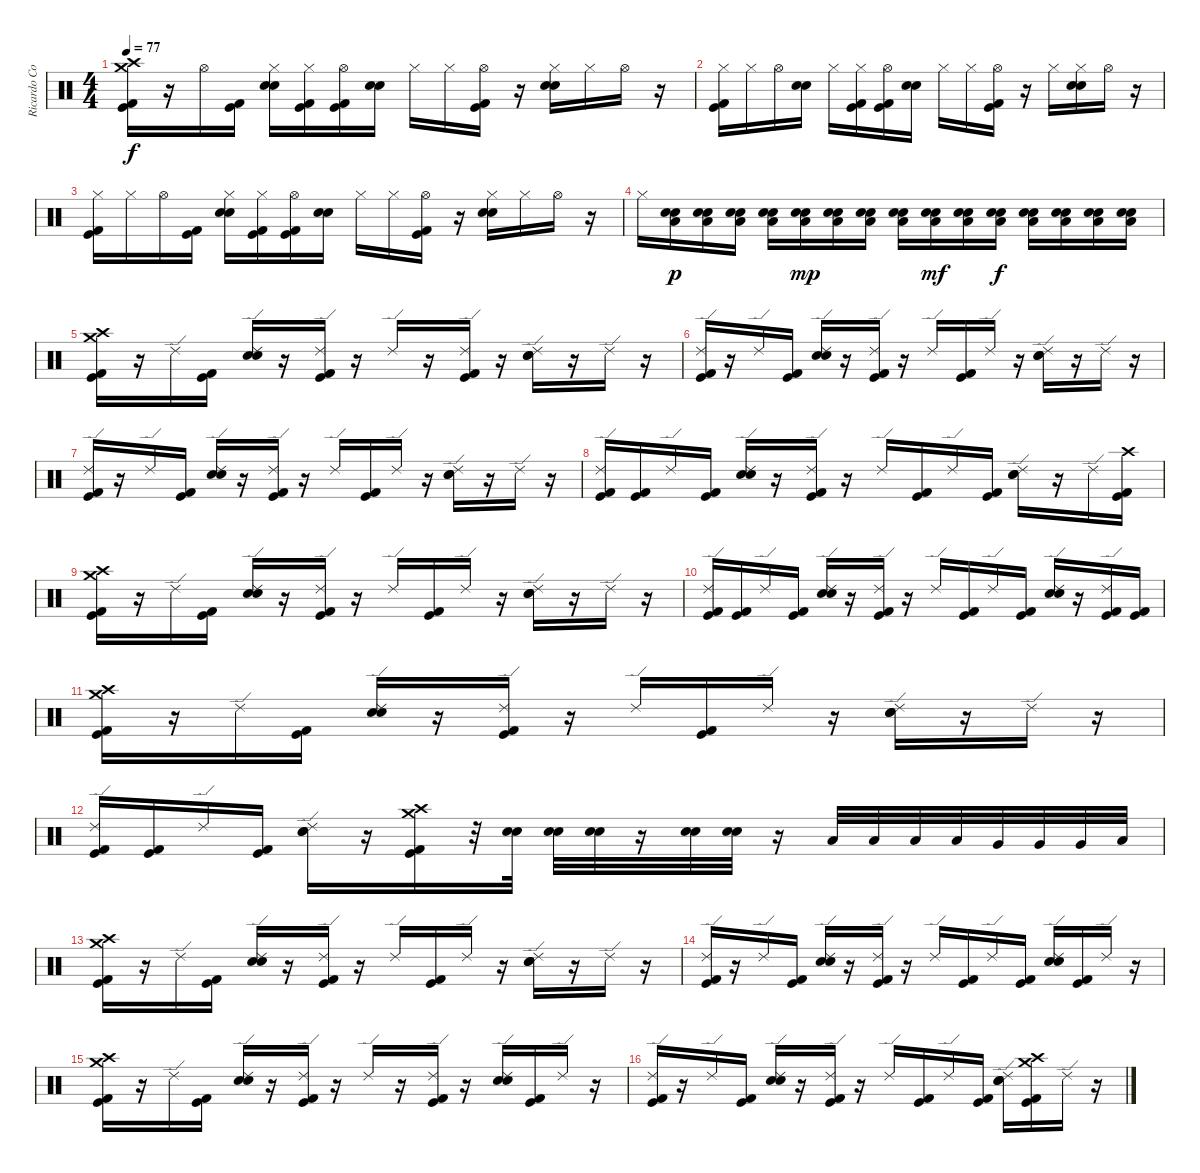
\track ("Ricardo Confessori" "Ricardo Co") {instrument percussion}
\staff {score}
\articulation defaults
\ts (4 4)
\tempo 77
\clef neutral
\ks c
("Kick (hit) 2" "Kick (hit)" "Crash high (hit)" "Crash medium (hit)").16{dy f} r.16 "Hi-Hat (open)".16 ("Kick (hit) 2" "Kick (hit)").16 ("Electric Snare (hit)" "Snare (hit) 2" "Hi-Hat (closed)").16 ("Kick (hit) 2" "Kick (hit)" "Hi-Hat (closed)").16 ("Kick (hit) 2" "Kick (hit)" "Hi-Hat (open)").16 ("Snare (hit) 2" "Electric Snare (hit)").16 "Hi-Hat (closed)".16 "Hi-Hat (closed)".16 ("Kick (hit) 2" "Kick (hit)" "Hi-Hat (open)").16 r.16 ("Snare (hit) 2" "Electric Snare (hit)" "Hi-Hat (closed)").16 "Hi-Hat (closed)".16 "Hi-Hat (open)".16 r.16 |
("Kick (hit) 2" "Kick (hit)" "Hi-Hat (closed)").16 "Hi-Hat (closed)".16 "Hi-Hat (open)".16 ("Electric Snare (hit)" "Snare (hit) 2").16 "Hi-Hat (closed)".16 ("Kick (hit) 2" "Kick (hit)" "Hi-Hat (closed)").16 ("Kick (hit) 2" "Kick (hit)" "Hi-Hat (open)").16 ("Electric Snare (hit)" "Snare (hit) 2").16 "Hi-Hat (closed)".16 "Hi-Hat (closed)".16 ("Kick (hit) 2" "Kick (hit)" "Hi-Hat (open)").16 r.16 "Hi-Hat (closed)".16 ("Snare (hit) 2" "Electric Snare (hit)" "Hi-Hat (closed)").16 "Hi-Hat (open)".16 r.16 |
("Kick (hit) 2" "Kick (hit)" "Hi-Hat (closed)").16 "Hi-Hat (closed)".16 "Hi-Hat (open)".16 ("Kick (hit) 2" "Kick (hit)").16 ("Electric Snare (hit)" "Snare (hit) 2" "Hi-Hat (closed)").16 ("Kick (hit) 2" "Kick (hit)" "Hi-Hat (closed)").16 ("Kick (hit) 2" "Kick (hit)" "Hi-Hat (open)").16 ("Electric Snare (hit)" "Snare (hit) 2").16 "Hi-Hat (closed)".16 "Hi-Hat (closed)".16 ("Kick (hit) 2" "Kick (hit)" "Hi-Hat (open)").16 r.16 ("Snare (hit) 2" "Electric Snare (hit)" "Hi-Hat (closed)").16 "Hi-Hat (closed)".16 "Hi-Hat (open)".16 r.16 |
"Hi-Hat (closed)".16 ("Low Floor Tom (hit)" "Snare (hit) 2" "Electric Snare (hit)").16{dy p} ("Low Floor Tom (hit)" "Snare (hit) 2" "Electric Snare (hit)").16 ("Electric Snare (hit)" "Snare (hit) 2" "Low Floor Tom (hit)").16 ("Low Floor Tom (hit)" "Electric Snare (hit)" "Snare (hit) 2").16 ("Low Floor Tom (hit)" "Electric Snare (hit)" "Snare (hit) 2").16{dy mp} ("Low Floor Tom (hit)" "Electric Snare (hit)" "Snare (hit) 2").16 ("Low Floor Tom (hit)" "Electric Snare (hit)" "Snare (hit) 2").16 ("Low Floor Tom (hit)" "Electric Snare (hit)" "Snare (hit) 2").16 ("Low Floor Tom (hit)" "Electric Snare (hit)" "Snare (hit) 2").16{dy mf} ("Low Floor Tom (hit)" "Electric Snare (hit)" "Snare (hit) 2").16 ("Low Floor Tom (hit)" "Electric Snare (hit)" "Snare (hit) 2").16{dy f} ("Low Floor Tom (hit)" "Electric Snare (hit)" "Snare (hit) 2").16 ("Low Floor Tom (hit)" "Electric Snare (hit)" "Snare (hit) 2").16 ("Low Floor Tom (hit)" "Electric Snare (hit)" "Snare (hit) 2").16 ("Snare (hit) 2" "Low Floor Tom (hit)" "Electric Snare (hit)").16 |
("Kick (hit) 2" "Kick (hit)" "Crash high (hit)" "Crash medium (hit)").16 r.16 "Ride (edge) 2".16 ("Kick (hit) 2" "Kick (hit)").16 ("Electric Snare (hit)" "Snare (hit) 2" "Ride (edge) 2").16 r.16 ("Kick (hit) 2" "Kick (hit)" "Ride (edge) 2").16 r.16 "Ride (edge) 2".16 r.16 ("Kick (hit) 2" "Kick (hit)" "Ride (edge) 2").16 r.16 ("Electric Snare (hit)" "Snare (hit) 2" "Ride (edge) 2").16 r.16 "Ride (edge) 2".16 r.16 |
("Kick (hit) 2" "Kick (hit)" "Ride (edge) 2").16 r.16 "Ride (edge) 2".16 ("Kick (hit) 2" "Kick (hit)").16 ("Electric Snare (hit)" "Snare (hit) 2" "Ride (edge) 2").16 r.16 ("Kick (hit) 2" "Kick (hit)" "Ride (edge) 2").16 r.16 "Ride (edge) 2".16 ("Kick (hit) 2" "Kick (hit)").16 "Ride (edge) 2".16 r.16 ("Electric Snare (hit)" "Snare (hit) 2" "Ride (edge) 2").16 r.16 "Ride (edge) 2".16 r.16 |
("Kick (hit) 2" "Kick (hit)" "Ride (edge) 2").16 r.16 "Ride (edge) 2".16 ("Kick (hit) 2" "Kick (hit)").16 ("Electric Snare (hit)" "Snare (hit) 2" "Ride (edge) 2").16 r.16 ("Kick (hit) 2" "Kick (hit)" "Ride (edge) 2").16 r.16 "Ride (edge) 2".16 ("Kick (hit) 2" "Kick (hit)").16 "Ride (edge) 2".16 r.16 ("Electric Snare (hit)" "Snare (hit) 2" "Ride (edge) 2").16 r.16 "Ride (edge) 2".16 r.16 |
("Kick (hit) 2" "Kick (hit)" "Ride (edge) 2").16 ("Kick (hit) 2" "Kick (hit)").16 "Ride (edge) 2".16 ("Kick (hit) 2" "Kick (hit)").16 ("Snare (hit) 2" "Electric Snare (hit)" "Ride (edge) 2").16 r.16 ("Kick (hit) 2" "Kick (hit)" "Ride (edge) 2").16 r.16 "Ride (edge) 2".16 ("Kick (hit) 2" "Kick (hit)").16 "Ride (edge) 2".16 ("Kick (hit) 2" "Kick (hit)").16 ("Electric Snare (hit)" "Snare (hit) 2" "Ride (edge) 2").16 r.16 "Ride (edge) 2".16 ("Crash high (hit)" "Kick (hit)" "Kick (hit) 2").16 |
("Kick (hit)" "Kick (hit) 2" "Crash high (hit)" "Crash medium (hit)").16 r.16 "Ride (edge) 2".16 ("Kick (hit) 2" "Kick (hit)").16 ("Electric Snare (hit)" "Snare (hit) 2" "Ride (edge) 2").16 r.16 ("Kick (hit) 2" "Kick (hit)" "Ride (edge) 2").16 r.16 "Ride (edge) 2".16 ("Kick (hit) 2" "Kick (hit)").16 "Ride (edge) 2".16 r.16 ("Electric Snare (hit)" "Snare (hit) 2" "Ride (edge) 2").16 r.16 "Ride (edge) 2".16 r.16 |
("Kick (hit) 2" "Kick (hit)" "Ride (edge) 2").16 ("Kick (hit) 2" "Kick (hit)").16 "Ride (edge) 2".16 ("Kick (hit) 2" "Kick (hit)").16 ("Electric Snare (hit)" "Snare (hit) 2" "Ride (edge) 2").16 r.16 ("Kick (hit) 2" "Kick (hit)" "Ride (edge) 2").16 r.16 "Ride (edge) 2".16 ("Kick (hit) 2" "Kick (hit)").16 "Ride (edge) 2".16 ("Kick (hit) 2" "Kick (hit)").16 ("Snare (hit) 2" "Electric Snare (hit)" "Ride (edge) 2").16 r.16 ("Kick (hit) 2" "Kick (hit)" "Ride (edge) 2").16 ("Kick (hit) 2" "Kick (hit)").16 |
("Crash high (hit)" "Crash medium (hit)" "Kick (hit) 2" "Kick (hit)").16 r.16 "Ride (edge) 2".16 ("Kick (hit) 2" "Kick (hit)").16 ("Electric Snare (hit)" "Snare (hit) 2" "Ride (edge) 2").16 r.16 ("Kick (hit) 2" "Kick (hit)" "Ride (edge) 2").16 r.16 "Ride (edge) 2".16 ("Kick (hit) 2" "Kick (hit)").16 "Ride (edge) 2".16 r.16 ("Electric Snare (hit)" "Snare (hit) 2" "Ride (edge) 2").16 r.16 "Ride (edge) 2".16 r.16 |
("Kick (hit) 2" "Kick (hit)" "Ride (edge) 2").16 ("Kick (hit) 2" "Kick (hit)").16 "Ride (edge) 2".16 ("Kick (hit) 2" "Kick (hit)").16 ("Electric Snare (hit)" "Snare (hit) 2" "Ride (edge) 2").16 r.16 ("Crash high (hit)" "Crash medium (hit)" "Kick (hit) 2" "Kick (hit)").16 r.32 ("Electric Snare (hit)" "Snare (hit) 2").32 ("Electric Snare (hit)" "Snare (hit) 2").32 ("Electric Snare (hit)" "Snare (hit) 2").32 r.16 ("Electric Snare (hit)" "Snare (hit) 2").32 ("Electric Snare (hit)" "Snare (hit) 2").32 r.16 "Low Tom (hit)".32 "Low Tom (hit)".32 "Low Tom (hit)".32 "Low Tom (hit)".32 "Very Low Tom (hit)".32 "Very Low Tom (hit)".32 "Very Low Tom (hit)".32 "Low Floor Tom (hit)".32 |
("Kick (hit) 2" "Kick (hit)" "Crash high (hit)" "Crash medium (hit)").16 r.16 "Ride (edge) 2".16 ("Kick (hit) 2" "Kick (hit)").16 ("Electric Snare (hit)" "Snare (hit) 2" "Ride (edge) 2").16 r.16 ("Kick (hit) 2" "Kick (hit)" "Ride (edge) 2").16 r.16 "Ride (edge) 2".16 ("Kick (hit) 2" "Kick (hit)").16 "Ride (edge) 2".16 r.16 ("Electric Snare (hit)" "Snare (hit) 2" "Ride (edge) 2").16 r.16 "Ride (edge) 2".16 r.16 |
("Kick (hit) 2" "Kick (hit)" "Ride (edge) 2").16 r.16 "Ride (edge) 2".16 ("Kick (hit)" "Kick (hit) 2").16 ("Electric Snare (hit)" "Snare (hit) 2" "Ride (edge) 2").16 r.16 ("Kick (hit) 2" "Kick (hit)" "Ride (edge) 2").16 r.16 "Ride (edge) 2".16 ("Kick (hit) 2" "Kick (hit)").16 "Ride (edge) 2".16 ("Kick (hit)" "Kick (hit) 2").16 ("Electric Snare (hit)" "Snare (hit) 2" "Ride (edge) 2").16 ("Kick (hit) 2" "Kick (hit)").16 "Ride (edge) 2".16 r.16 |
("Kick (hit) 2" "Kick (hit)" "Crash high (hit)" "Crash medium (hit)").16 r.16 "Ride (edge) 2".16 ("Kick (hit) 2" "Kick (hit)").16 ("Electric Snare (hit)" "Snare (hit) 2" "Ride (edge) 2").16 r.16 ("Kick (hit)" "Kick (hit) 2" "Ride (edge) 2").16 r.16 "Ride (edge) 2".16 r.16 ("Kick (hit)" "Kick (hit) 2" "Ride (edge) 2").16 r.16 ("Snare (hit) 2" "Electric Snare (hit)" "Ride (edge) 2").16 ("Kick (hit) 2" "Kick (hit)").16 "Ride (edge) 2".16 r.16 |
("Kick (hit) 2" "Kick (hit)" "Ride (edge) 2").16 r.16 "Ride (edge) 2".16 ("Kick (hit) 2" "Kick (hit)").16 ("Electric Snare (hit)" "Snare (hit) 2" "Ride (edge) 2").16 r.16 ("Kick (hit) 2" "Kick (hit)" "Ride (edge) 2").16 r.16 "Ride (edge) 2".16 ("Kick (hit) 2" "Kick (hit)").16 "Ride (edge) 2".16 ("Kick (hit) 2" "Kick (hit)").16 ("Electric Snare (hit)" "Snare (hit) 2" "Ride (edge) 2").16 ("Kick (hit) 2" "Kick (hit)" "Crash high (hit)" "Crash medium (hit)").16 "Ride (edge) 2".16 r.16
